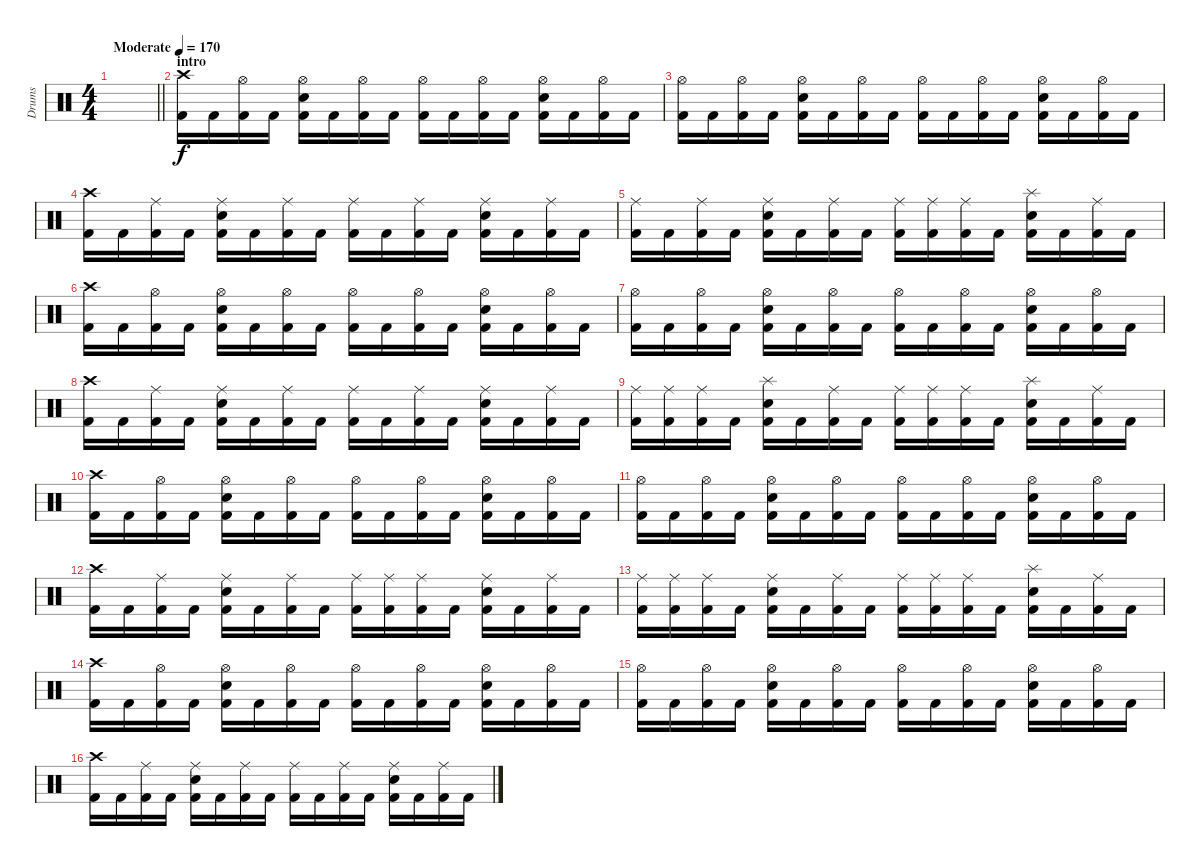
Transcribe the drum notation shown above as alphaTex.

\track ("Drums" "Drums") {instrument percussion}
\staff {score}
\articulation defaults
\ts (4 4)
\tempo (170 "Moderate")
\clef neutral
\barLineRight lightlight
\ks c
|
\section ("" "intro")
("Crash high (hit)" "Kick (hit) 2").16 "Kick (hit) 2".16 ("Hi-Hat (open)" "Kick (hit) 2").16 "Kick (hit) 2".16 ("Snare (hit) 2" "Hi-Hat (open)" "Kick (hit) 2").16 "Kick (hit) 2".16 ("Hi-Hat (open)" "Kick (hit) 2").16 "Kick (hit) 2".16 ("Hi-Hat (open)" "Kick (hit) 2").16 "Kick (hit) 2".16 ("Hi-Hat (open)" "Kick (hit) 2").16 "Kick (hit) 2".16 ("Snare (hit) 2" "Hi-Hat (open)" "Kick (hit) 2").16 "Kick (hit) 2".16 ("Hi-Hat (open)" "Kick (hit) 2").16 "Kick (hit) 2".16 |
("Hi-Hat (open)" "Kick (hit) 2").16 "Kick (hit) 2".16 ("Hi-Hat (open)" "Kick (hit) 2").16 "Kick (hit) 2".16 ("Snare (hit) 2" "Hi-Hat (open)" "Kick (hit) 2").16 "Kick (hit) 2".16 ("Hi-Hat (open)" "Kick (hit) 2").16 "Kick (hit) 2".16 ("Hi-Hat (open)" "Kick (hit) 2").16 "Kick (hit) 2".16 ("Hi-Hat (open)" "Kick (hit) 2").16 "Kick (hit) 2".16 ("Snare (hit) 2" "Hi-Hat (open)" "Kick (hit) 2").16 "Kick (hit) 2".16 ("Hi-Hat (open)" "Kick (hit) 2").16 "Kick (hit) 2".16 |
("Crash high (hit)" "Kick (hit) 2").16 "Kick (hit) 2".16 ("Ride (middle)" "Kick (hit) 2").16 "Kick (hit) 2".16 ("Ride (middle)" "Snare (hit) 2" "Kick (hit) 2").16 "Kick (hit) 2".16 ("Ride (middle)" "Kick (hit) 2").16 "Kick (hit) 2".16 ("Ride (middle)" "Kick (hit) 2").16 "Kick (hit) 2".16 ("Ride (middle)" "Kick (hit) 2").16 "Kick (hit) 2".16 ("Ride (middle)" "Snare (hit) 2" "Kick (hit) 2").16 "Kick (hit) 2".16 ("Ride (middle)" "Kick (hit) 2").16 "Kick (hit) 2".16 |
("Ride (middle)" "Kick (hit) 2").16 "Kick (hit) 2".16 ("Ride (middle)" "Kick (hit) 2").16 "Kick (hit) 2".16 ("Ride (middle)" "Snare (hit) 2" "Kick (hit) 2").16 "Kick (hit) 2".16 ("Ride (middle)" "Kick (hit) 2").16 "Kick (hit) 2".16 ("Ride (middle)" "Kick (hit) 2").16 ("Ride (middle)" "Kick (hit) 2").16 ("Ride (middle)" "Kick (hit) 2").16 "Kick (hit) 2".16 ("Splash (hit)" "Snare (hit) 2" "Kick (hit) 2").16 "Kick (hit) 2".16 ("Ride (middle)" "Kick (hit) 2").16 "Kick (hit) 2".16 |
("Crash high (hit)" "Kick (hit) 2").16 "Kick (hit) 2".16 ("Hi-Hat (open)" "Kick (hit) 2").16 "Kick (hit) 2".16 ("Snare (hit) 2" "Hi-Hat (open)" "Kick (hit) 2").16 "Kick (hit) 2".16 ("Hi-Hat (open)" "Kick (hit) 2").16 "Kick (hit) 2".16 ("Hi-Hat (open)" "Kick (hit) 2").16 "Kick (hit) 2".16 ("Hi-Hat (open)" "Kick (hit) 2").16 "Kick (hit) 2".16 ("Snare (hit) 2" "Hi-Hat (open)" "Kick (hit) 2").16 "Kick (hit) 2".16 ("Hi-Hat (open)" "Kick (hit) 2").16 "Kick (hit) 2".16 |
("Hi-Hat (open)" "Kick (hit) 2").16 "Kick (hit) 2".16 ("Hi-Hat (open)" "Kick (hit) 2").16 "Kick (hit) 2".16 ("Snare (hit) 2" "Hi-Hat (open)" "Kick (hit) 2").16 "Kick (hit) 2".16 ("Hi-Hat (open)" "Kick (hit) 2").16 "Kick (hit) 2".16 ("Hi-Hat (open)" "Kick (hit) 2").16 "Kick (hit) 2".16 ("Hi-Hat (open)" "Kick (hit) 2").16 "Kick (hit) 2".16 ("Snare (hit) 2" "Hi-Hat (open)" "Kick (hit) 2").16 "Kick (hit) 2".16 ("Hi-Hat (open)" "Kick (hit) 2").16 "Kick (hit) 2".16 |
("Crash high (hit)" "Kick (hit) 2").16 "Kick (hit) 2".16 ("Ride (middle)" "Kick (hit) 2").16 "Kick (hit) 2".16 ("Ride (middle)" "Snare (hit) 2" "Kick (hit) 2").16 "Kick (hit) 2".16 ("Ride (middle)" "Kick (hit) 2").16 "Kick (hit) 2".16 ("Ride (middle)" "Kick (hit) 2").16 "Kick (hit) 2".16 ("Ride (middle)" "Kick (hit) 2").16 "Kick (hit) 2".16 ("Ride (middle)" "Snare (hit) 2" "Kick (hit) 2").16 "Kick (hit) 2".16 ("Ride (middle)" "Kick (hit) 2").16 "Kick (hit) 2".16 |
("Ride (middle)" "Kick (hit) 2").16 ("Ride (middle)" "Kick (hit) 2").16 ("Ride (middle)" "Kick (hit) 2").16 "Kick (hit) 2".16 ("Splash (hit)" "Snare (hit) 2" "Kick (hit) 2").16 "Kick (hit) 2".16 ("Ride (middle)" "Kick (hit) 2").16 "Kick (hit) 2".16 ("Ride (middle)" "Kick (hit) 2").16 ("Ride (middle)" "Kick (hit) 2").16 ("Ride (middle)" "Kick (hit) 2").16 "Kick (hit) 2".16 ("Splash (hit)" "Snare (hit) 2" "Kick (hit) 2").16 "Kick (hit) 2".16 ("Ride (middle)" "Kick (hit) 2").16 "Kick (hit) 2".16 |
("Crash high (hit)" "Kick (hit) 2").16 "Kick (hit) 2".16 ("Hi-Hat (open)" "Kick (hit) 2").16 "Kick (hit) 2".16 ("Snare (hit) 2" "Hi-Hat (open)" "Kick (hit) 2").16 "Kick (hit) 2".16 ("Hi-Hat (open)" "Kick (hit) 2").16 "Kick (hit) 2".16 ("Hi-Hat (open)" "Kick (hit) 2").16 "Kick (hit) 2".16 ("Hi-Hat (open)" "Kick (hit) 2").16 "Kick (hit) 2".16 ("Snare (hit) 2" "Hi-Hat (open)" "Kick (hit) 2").16 "Kick (hit) 2".16 ("Hi-Hat (open)" "Kick (hit) 2").16 "Kick (hit) 2".16 |
("Hi-Hat (open)" "Kick (hit) 2").16 "Kick (hit) 2".16 ("Hi-Hat (open)" "Kick (hit) 2").16 "Kick (hit) 2".16 ("Snare (hit) 2" "Hi-Hat (open)" "Kick (hit) 2").16 "Kick (hit) 2".16 ("Hi-Hat (open)" "Kick (hit) 2").16 "Kick (hit) 2".16 ("Hi-Hat (open)" "Kick (hit) 2").16 "Kick (hit) 2".16 ("Hi-Hat (open)" "Kick (hit) 2").16 "Kick (hit) 2".16 ("Snare (hit) 2" "Hi-Hat (open)" "Kick (hit) 2").16 "Kick (hit) 2".16 ("Hi-Hat (open)" "Kick (hit) 2").16 "Kick (hit) 2".16 |
("Crash high (hit)" "Kick (hit) 2").16 "Kick (hit) 2".16 ("Ride (middle)" "Kick (hit) 2").16 "Kick (hit) 2".16 ("Ride (middle)" "Snare (hit) 2" "Kick (hit) 2").16 "Kick (hit) 2".16 ("Ride (middle)" "Kick (hit) 2").16 "Kick (hit) 2".16 ("Ride (middle)" "Kick (hit) 2").16 ("Ride (middle)" "Kick (hit) 2").16 ("Ride (middle)" "Kick (hit) 2").16 "Kick (hit) 2".16 ("Ride (middle)" "Snare (hit) 2" "Kick (hit) 2").16 "Kick (hit) 2".16 ("Ride (middle)" "Kick (hit) 2").16 "Kick (hit) 2".16 |
("Ride (middle)" "Kick (hit) 2").16 ("Ride (middle)" "Kick (hit) 2").16 ("Ride (middle)" "Kick (hit) 2").16 "Kick (hit) 2".16 ("Ride (middle)" "Snare (hit) 2" "Kick (hit) 2").16 "Kick (hit) 2".16 ("Ride (middle)" "Kick (hit) 2").16 "Kick (hit) 2".16 ("Ride (middle)" "Kick (hit) 2").16 ("Ride (middle)" "Kick (hit) 2").16 ("Ride (middle)" "Kick (hit) 2").16 "Kick (hit) 2".16 ("Splash (hit)" "Snare (hit) 2" "Kick (hit) 2").16 "Kick (hit) 2".16 ("Ride (middle)" "Kick (hit) 2").16 "Kick (hit) 2".16 |
("Crash high (hit)" "Kick (hit) 2").16 "Kick (hit) 2".16 ("Hi-Hat (open)" "Kick (hit) 2").16 "Kick (hit) 2".16 ("Snare (hit) 2" "Hi-Hat (open)" "Kick (hit) 2").16 "Kick (hit) 2".16 ("Hi-Hat (open)" "Kick (hit) 2").16 "Kick (hit) 2".16 ("Hi-Hat (open)" "Kick (hit) 2").16 "Kick (hit) 2".16 ("Hi-Hat (open)" "Kick (hit) 2").16 "Kick (hit) 2".16 ("Snare (hit) 2" "Hi-Hat (open)" "Kick (hit) 2").16 "Kick (hit) 2".16 ("Hi-Hat (open)" "Kick (hit) 2").16 "Kick (hit) 2".16 |
("Hi-Hat (open)" "Kick (hit) 2").16 "Kick (hit) 2".16 ("Hi-Hat (open)" "Kick (hit) 2").16 "Kick (hit) 2".16 ("Snare (hit) 2" "Hi-Hat (open)" "Kick (hit) 2").16 "Kick (hit) 2".16 ("Hi-Hat (open)" "Kick (hit) 2").16 "Kick (hit) 2".16 ("Hi-Hat (open)" "Kick (hit) 2").16 "Kick (hit) 2".16 ("Hi-Hat (open)" "Kick (hit) 2").16 "Kick (hit) 2".16 ("Snare (hit) 2" "Hi-Hat (open)" "Kick (hit) 2").16 "Kick (hit) 2".16 ("Hi-Hat (open)" "Kick (hit) 2").16 "Kick (hit) 2".16 |
("Crash high (hit)" "Kick (hit) 2").16 "Kick (hit) 2".16 ("Ride (middle)" "Kick (hit) 2").16 "Kick (hit) 2".16 ("Ride (middle)" "Snare (hit) 2" "Kick (hit) 2").16 "Kick (hit) 2".16 ("Ride (middle)" "Kick (hit) 2").16 "Kick (hit) 2".16 ("Ride (middle)" "Kick (hit) 2").16 "Kick (hit) 2".16 ("Ride (middle)" "Kick (hit) 2").16 "Kick (hit) 2".16 ("Ride (middle)" "Snare (hit) 2" "Kick (hit) 2").16 "Kick (hit) 2".16 ("Ride (middle)" "Kick (hit) 2").16 "Kick (hit) 2".16
